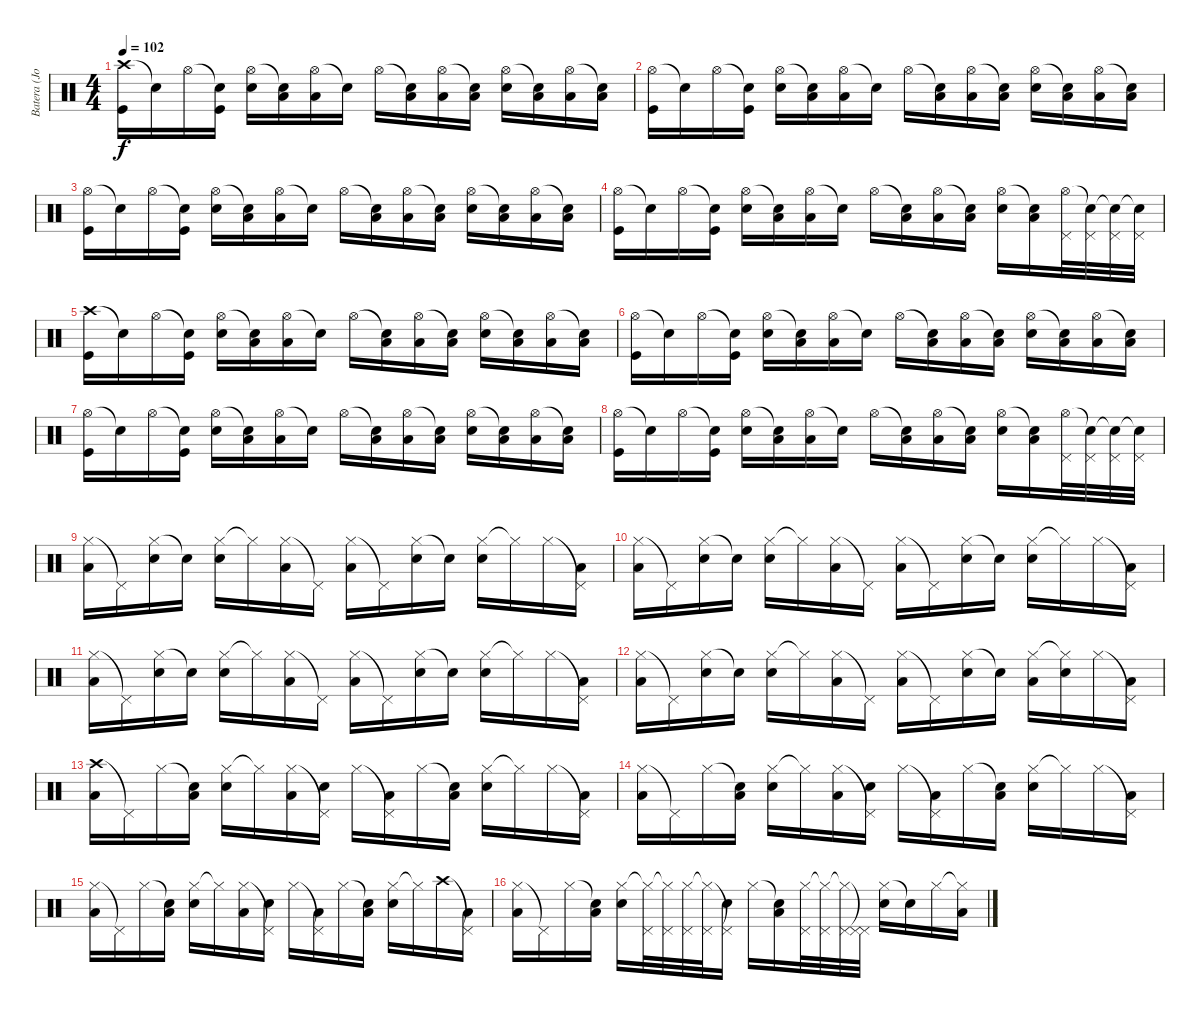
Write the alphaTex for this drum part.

\track ("Batera (John)" "Batera (Jo") {instrument percussion}
\staff {score}
\articulation defaults
\ts (4 4)
\tempo 102
\clef neutral
\ks c
("Crash high (hit)" "Kick (hit)").16{dy f} "Snare (hit)"{t}.16 "Hi-Hat (open)".16 ("Snare (hit)"{t} "Kick (hit)").16 ("Hi-Hat (open)" "Snare (hit) 2").16 ("Snare (hit)"{t} "Low Tom (hit)").16 ("Hi-Hat (open)" "Low Tom (hit)").16 "Snare (hit)"{t}.16 "Hi-Hat (open)".16 ("Snare (hit)"{t} "Low Tom (hit)").16 ("Hi-Hat (open)" "Low Tom (hit)").16 ("Snare (hit)"{t} "Low Tom (hit)").16 ("Hi-Hat (open)" "Snare (hit) 2").16 ("Snare (hit)"{t} "Low Tom (hit)").16 ("Hi-Hat (open)" "Low Tom (hit)").16 ("Snare (hit)"{t} "Low Tom (hit)").16 |
("Hi-Hat (open)" "Kick (hit)").16 "Snare (hit)"{t}.16 "Hi-Hat (open)".16 ("Snare (hit)"{t} "Kick (hit)").16 ("Hi-Hat (open)" "Snare (hit) 2").16 ("Snare (hit)"{t} "Low Tom (hit)").16 ("Hi-Hat (open)" "Low Tom (hit)").16 "Snare (hit)"{t}.16 "Hi-Hat (open)".16 ("Snare (hit)"{t} "Low Tom (hit)").16 ("Hi-Hat (open)" "Low Tom (hit)").16 ("Snare (hit)"{t} "Low Tom (hit)").16 ("Hi-Hat (open)" "Snare (hit) 2").16 ("Snare (hit)"{t} "Low Tom (hit)").16 ("Hi-Hat (open)" "Low Tom (hit)").16 ("Snare (hit)"{t} "Low Tom (hit)").16 |
("Hi-Hat (open)" "Kick (hit)").16 "Snare (hit)"{t}.16 "Hi-Hat (open)".16 ("Snare (hit)"{t} "Kick (hit)").16 ("Hi-Hat (open)" "Snare (hit) 2").16 ("Snare (hit)"{t} "Low Tom (hit)").16 ("Hi-Hat (open)" "Low Tom (hit)").16 "Snare (hit)"{t}.16 "Hi-Hat (open)".16 ("Snare (hit)"{t} "Low Tom (hit)").16 ("Hi-Hat (open)" "Low Tom (hit)").16 ("Snare (hit)"{t} "Low Tom (hit)").16 ("Hi-Hat (open)" "Snare (hit) 2").16 ("Snare (hit)"{t} "Low Tom (hit)").16 ("Hi-Hat (open)" "Low Tom (hit)").16 ("Snare (hit)"{t} "Low Tom (hit)").16 |
("Hi-Hat (open)" "Kick (hit)").16 "Snare (hit)"{t}.16 "Hi-Hat (open)".16 ("Snare (hit)"{t} "Kick (hit)").16 ("Hi-Hat (open)" "Snare (hit) 2").16 ("Snare (hit)"{t} "Low Tom (hit)").16 ("Hi-Hat (open)" "Low Tom (hit)").16 "Snare (hit)"{t}.16 "Hi-Hat (open)".16 ("Snare (hit)"{t} "Low Tom (hit)").16 ("Hi-Hat (open)" "Low Tom (hit)").16 ("Snare (hit)"{t} "Low Tom (hit)").16 ("Hi-Hat (open)" "Snare (hit) 2").16 ("Snare (hit)"{t} "Low Tom (hit)").16 ("Hi-Hat (open)" "Pedal Hi-Hat (hit)").32 ("Snare (hit)"{t} "Pedal Hi-Hat (hit)").32 ("Snare (hit)"{t} "Pedal Hi-Hat (hit)").32 ("Snare (hit)"{t} "Pedal Hi-Hat (hit)").32 |
("Crash high (hit)" "Kick (hit)").16 "Snare (hit)"{t}.16 "Hi-Hat (open)".16 ("Snare (hit)"{t} "Kick (hit)").16 ("Hi-Hat (open)" "Snare (hit) 2").16 ("Snare (hit)"{t} "Low Tom (hit)").16 ("Hi-Hat (open)" "Low Tom (hit)").16 "Snare (hit)"{t}.16 "Hi-Hat (open)".16 ("Snare (hit)"{t} "Low Tom (hit)").16 ("Hi-Hat (open)" "Low Tom (hit)").16 ("Snare (hit)"{t} "Low Tom (hit)").16 ("Hi-Hat (open)" "Snare (hit) 2").16 ("Snare (hit)"{t} "Low Tom (hit)").16 ("Hi-Hat (open)" "Low Tom (hit)").16 ("Snare (hit)"{t} "Low Tom (hit)").16 |
("Hi-Hat (open)" "Kick (hit)").16 "Snare (hit)"{t}.16 "Hi-Hat (open)".16 ("Snare (hit)"{t} "Kick (hit)").16 ("Hi-Hat (open)" "Snare (hit) 2").16 ("Snare (hit)"{t} "Low Tom (hit)").16 ("Hi-Hat (open)" "Low Tom (hit)").16 "Snare (hit)"{t}.16 "Hi-Hat (open)".16 ("Snare (hit)"{t} "Low Tom (hit)").16 ("Hi-Hat (open)" "Low Tom (hit)").16 ("Snare (hit)"{t} "Low Tom (hit)").16 ("Hi-Hat (open)" "Snare (hit) 2").16 ("Snare (hit)"{t} "Low Tom (hit)").16 ("Hi-Hat (open)" "Low Tom (hit)").16 ("Snare (hit)"{t} "Low Tom (hit)").16 |
("Hi-Hat (open)" "Kick (hit)").16 "Snare (hit)"{t}.16 "Hi-Hat (open)".16 ("Snare (hit)"{t} "Kick (hit)").16 ("Hi-Hat (open)" "Snare (hit) 2").16 ("Snare (hit)"{t} "Low Tom (hit)").16 ("Hi-Hat (open)" "Low Tom (hit)").16 "Snare (hit)"{t}.16 "Hi-Hat (open)".16 ("Snare (hit)"{t} "Low Tom (hit)").16 ("Hi-Hat (open)" "Low Tom (hit)").16 ("Snare (hit)"{t} "Low Tom (hit)").16 ("Hi-Hat (open)" "Snare (hit) 2").16 ("Snare (hit)"{t} "Low Tom (hit)").16 ("Hi-Hat (open)" "Low Tom (hit)").16 ("Snare (hit)"{t} "Low Tom (hit)").16 |
("Hi-Hat (open)" "Kick (hit)").16 "Snare (hit)"{t}.16 "Hi-Hat (open)".16 ("Snare (hit)"{t} "Kick (hit)").16 ("Hi-Hat (open)" "Snare (hit) 2").16 ("Snare (hit)"{t} "Low Tom (hit)").16 ("Hi-Hat (open)" "Low Tom (hit)").16 "Snare (hit)"{t}.16 "Hi-Hat (open)".16 ("Snare (hit)"{t} "Low Tom (hit)").16 ("Hi-Hat (open)" "Low Tom (hit)").16 ("Snare (hit)"{t} "Low Tom (hit)").16 ("Hi-Hat (open)" "Snare (hit) 2").16 ("Snare (hit)"{t} "Low Tom (hit)").16 ("Hi-Hat (open)" "Pedal Hi-Hat (hit)").32 ("Snare (hit)"{t} "Pedal Hi-Hat (hit)").32 ("Snare (hit)"{t} "Pedal Hi-Hat (hit)").32 ("Snare (hit)"{t} "Pedal Hi-Hat (hit)").32 |
("Hi-Hat (closed)" "Low Tom (hit)").16 "Pedal Hi-Hat (hit)"{t}.16 ("Hi-Hat (closed)" "Snare (hit) 2").16 "Snare (hit)"{t}.16 ("Hi-Hat (closed)" "Snare (hit) 2").16 "Hi-Hat (closed)"{t}.16 ("Hi-Hat (closed)" "Low Tom (hit)").16 "Pedal Hi-Hat (hit)"{t}.16 ("Hi-Hat (closed)" "Low Tom (hit)").16 "Pedal Hi-Hat (hit)"{t}.16 ("Hi-Hat (closed)" "Snare (hit) 2").16 "Snare (hit)"{t}.16 ("Hi-Hat (closed)" "Snare (hit) 2").16 "Hi-Hat (closed)"{t}.16 "Hi-Hat (closed)".16 ("Pedal Hi-Hat (hit)"{t} "Low Tom (hit)").16 |
("Hi-Hat (closed)" "Low Tom (hit)").16 "Pedal Hi-Hat (hit)"{t}.16 ("Hi-Hat (closed)" "Snare (hit) 2").16 "Snare (hit)"{t}.16 ("Hi-Hat (closed)" "Snare (hit) 2").16 "Hi-Hat (closed)"{t}.16 ("Hi-Hat (closed)" "Low Tom (hit)").16 "Pedal Hi-Hat (hit)"{t}.16 ("Hi-Hat (closed)" "Low Tom (hit)").16 "Pedal Hi-Hat (hit)"{t}.16 ("Hi-Hat (closed)" "Snare (hit) 2").16 "Snare (hit)"{t}.16 ("Hi-Hat (closed)" "Snare (hit) 2").16 "Hi-Hat (closed)"{t}.16 "Hi-Hat (closed)".16 ("Pedal Hi-Hat (hit)"{t} "Low Tom (hit)").16 |
("Hi-Hat (closed)" "Low Tom (hit)").16 "Pedal Hi-Hat (hit)"{t}.16 ("Hi-Hat (closed)" "Snare (hit) 2").16 "Snare (hit)"{t}.16 ("Hi-Hat (closed)" "Snare (hit) 2").16 "Hi-Hat (closed)"{t}.16 ("Hi-Hat (closed)" "Low Tom (hit)").16 "Pedal Hi-Hat (hit)"{t}.16 ("Hi-Hat (closed)" "Low Tom (hit)").16 "Pedal Hi-Hat (hit)"{t}.16 ("Hi-Hat (closed)" "Snare (hit) 2").16 "Snare (hit)"{t}.16 ("Hi-Hat (closed)" "Snare (hit) 2").16 "Hi-Hat (closed)"{t}.16 "Hi-Hat (closed)".16 ("Pedal Hi-Hat (hit)"{t} "Low Tom (hit)").16 |
("Hi-Hat (closed)" "Low Tom (hit)").16 "Pedal Hi-Hat (hit)"{t}.16 ("Hi-Hat (closed)" "Snare (hit) 2").16 "Snare (hit)"{t}.16 ("Hi-Hat (closed)" "Snare (hit) 2").16 "Hi-Hat (closed)"{t}.16 ("Hi-Hat (closed)" "Low Tom (hit)").16 "Pedal Hi-Hat (hit)"{t}.16 ("Hi-Hat (closed)" "Low Tom (hit)").16 "Pedal Hi-Hat (hit)"{t}.16 ("Hi-Hat (closed)" "Snare (hit) 2").16 "Snare (hit)"{t}.16 ("Hi-Hat (closed)" "Low Tom (hit)").16 ("Hi-Hat (closed)"{t} "Snare (hit) 2").16 "Hi-Hat (closed)".16 ("Pedal Hi-Hat (hit)"{t} "Low Tom (hit)").16 |
("Crash high (hit)" "Low Tom (hit)").16 "Pedal Hi-Hat (hit)"{t}.16 "Hi-Hat (closed)".16 ("Snare (hit)"{t} "Low Tom (hit)").16 ("Hi-Hat (closed)" "Snare (hit) 2").16 "Hi-Hat (closed)"{t}.16 ("Hi-Hat (closed)" "Low Tom (hit)").16 ("Pedal Hi-Hat (hit)"{t} "Snare (hit) 2").16 "Hi-Hat (closed)".16 ("Pedal Hi-Hat (hit)"{t} "Low Tom (hit)").16 "Hi-Hat (closed)".16 ("Snare (hit)"{t} "Low Tom (hit)").16 ("Hi-Hat (closed)" "Snare (hit) 2").16 "Hi-Hat (closed)"{t}.16 "Hi-Hat (closed)".16 ("Pedal Hi-Hat (hit)"{t} "Low Tom (hit)").16 |
("Hi-Hat (closed)" "Low Tom (hit)").16 "Pedal Hi-Hat (hit)"{t}.16 "Hi-Hat (closed)".16 ("Snare (hit)"{t} "Low Tom (hit)").16 ("Hi-Hat (closed)" "Snare (hit) 2").16 "Hi-Hat (closed)"{t}.16 ("Hi-Hat (closed)" "Low Tom (hit)").16 ("Pedal Hi-Hat (hit)"{t} "Snare (hit) 2").16 "Hi-Hat (closed)".16 ("Pedal Hi-Hat (hit)"{t} "Low Tom (hit)").16 "Hi-Hat (closed)".16 ("Snare (hit)"{t} "Low Tom (hit)").16 ("Hi-Hat (closed)" "Snare (hit) 2").16 "Hi-Hat (closed)"{t}.16 "Hi-Hat (closed)".16 ("Pedal Hi-Hat (hit)"{t} "Low Tom (hit)").16 |
("Hi-Hat (closed)" "Low Tom (hit)").16 "Pedal Hi-Hat (hit)"{t}.16 "Hi-Hat (closed)".16 ("Snare (hit)"{t} "Low Tom (hit)").16 ("Hi-Hat (closed)" "Snare (hit) 2").16 "Hi-Hat (closed)"{t}.16 ("Hi-Hat (closed)" "Low Tom (hit)").16 ("Pedal Hi-Hat (hit)"{t} "Snare (hit) 2").16 "Hi-Hat (closed)".16 ("Pedal Hi-Hat (hit)"{t} "Low Tom (hit)").16 "Hi-Hat (closed)".16 ("Snare (hit)"{t} "Low Tom (hit)").16 ("Hi-Hat (closed)" "Snare (hit) 2").16 "Hi-Hat (closed)"{t}.16 "Crash high (hit)".16 ("Pedal Hi-Hat (hit)"{t} "Low Tom (hit)").16 |
("Hi-Hat (closed)" "Low Tom (hit)").16 "Pedal Hi-Hat (hit)"{t}.16 "Hi-Hat (closed)".16 ("Snare (hit)"{t} "Low Tom (hit)").16 ("Hi-Hat (closed)" "Snare (hit) 2").16 ("Hi-Hat (closed)"{t} "Pedal Hi-Hat (hit)").32 ("Hi-Hat (closed)"{t} "Pedal Hi-Hat (hit)").32 ("Hi-Hat (closed)" "Pedal Hi-Hat (hit)").32 ("Hi-Hat (closed)"{t} "Pedal Hi-Hat (hit)").32 ("Pedal Hi-Hat (hit)"{t} "Snare (hit) 2").16 "Hi-Hat (closed)".16 ("Snare (hit)"{t} "Low Tom (hit)").16 ("Hi-Hat (closed)" "Pedal Hi-Hat (hit)").32 ("Hi-Hat (closed)"{t} "Pedal Hi-Hat (hit)").32 ("Hi-Hat (closed)"{t} "Pedal Hi-Hat (hit)").32 ("Pedal Hi-Hat (hit)"{t} "Pedal Hi-Hat (hit)").32 ("Hi-Hat (closed)" "Snare (hit) 2").16 "Snare (hit)"{t}.16 "Hi-Hat (closed)".16 ("Hi-Hat (closed)"{t} "Low Tom (hit)").16
